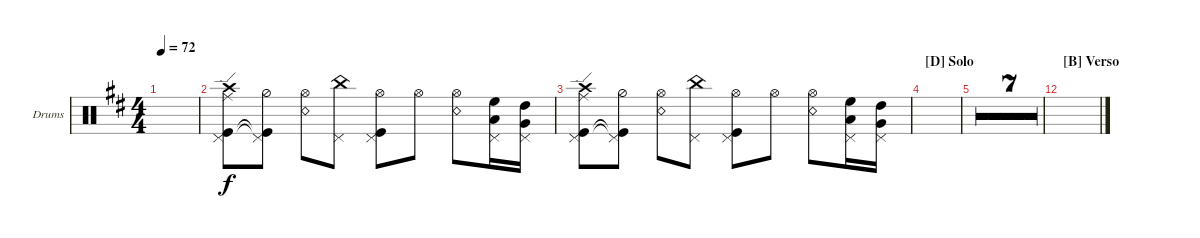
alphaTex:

\defaultSystemsLayout 4
\bracketExtendMode groupsimilarinstruments
\firstSystemTrackNameOrientation horizontal
\otherSystemsTrackNameOrientation horizontal
\track ("Drum-hall" "Drums") {multiBarRest instrument percussion}
\staff {score}
\articulation defaults
\ts (4 4)
\tempo 72
\clef neutral
\ks d
|
("Kick (hit)" "Pedal Hi-Hat (hit)" "Crash high (hit)" "Ride (edge)").8 ("Kick (hit)"{t} "Pedal Hi-Hat (hit)"{t} "Hi-Hat (half)").8 ("Snare (rim shot)" "Hi-Hat (open)").8 ("Pedal Hi-Hat (hit)" "China (hit)").8 ("Kick (hit)" "Pedal Hi-Hat (hit)" "Hi-Hat (open)").8 "Hi-Hat (open)".8 ("Snare (rim shot)" "Hi-Hat (open)").8 ("High Floor Tom (hit)" "Low Tom (hit)" "Pedal Hi-Hat (hit)").16 ("High Tom (hit)" "Very Low Tom (hit)" "Pedal Hi-Hat (hit)").16 |
("Kick (hit)" "Pedal Hi-Hat (hit)" "Crash high (hit)" "Ride (edge)").8 ("Kick (hit)"{t} "Pedal Hi-Hat (hit)"{t} "Hi-Hat (half)").8 ("Snare (rim shot)" "Hi-Hat (open)").8 ("Pedal Hi-Hat (hit)" "China (hit)").8 ("Kick (hit)" "Pedal Hi-Hat (hit)" "Hi-Hat (open)").8 "Hi-Hat (open)".8 ("Snare (rim shot)" "Hi-Hat (open)").8 ("High Floor Tom (hit)" "Low Tom (hit)" "Pedal Hi-Hat (hit)").16 ("High Tom (hit)" "Very Low Tom (hit)" "Pedal Hi-Hat (hit)").16 |
\section ("D" "Solo")
|
|
|
|
|
|
|
|
\section ("B" "Verso")
